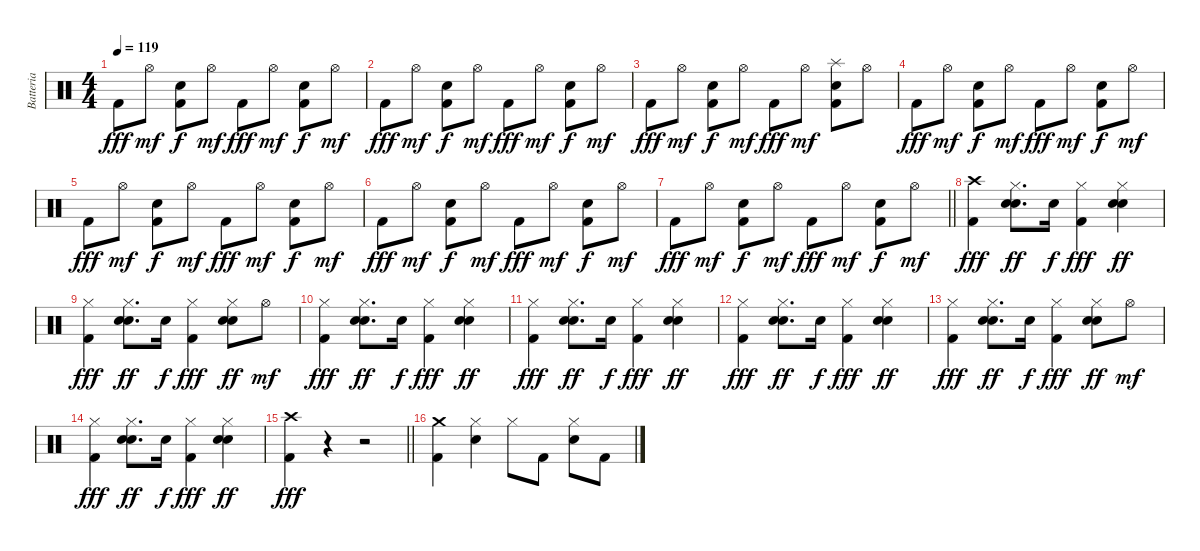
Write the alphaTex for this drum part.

\track ("Batteria" "Batteria") {instrument percussion}
\staff {score}
\articulation defaults
\ts (4 4)
\tempo 119
\clef neutral
\ks c "Kick (hit) 2".8{dy fff} "Hi-Hat (open)".8{dy mf}
("Kick (hit) 2" "Electric Snare (hit)").8{dy f} "Hi-Hat (open)".8{dy mf} "Kick (hit) 2".8{dy fff} "Hi-Hat (open)".8{dy mf} ("Kick (hit) 2" "Electric Snare (hit)").8{dy f} "Hi-Hat (open)".8{dy mf} |
"Kick (hit) 2".8{dy fff} "Hi-Hat (open)".8{dy mf} ("Kick (hit) 2" "Electric Snare (hit)").8{dy f} "Hi-Hat (open)".8{dy mf} "Kick (hit) 2".8{dy fff} "Hi-Hat (open)".8{dy mf} ("Kick (hit) 2" "Electric Snare (hit)").8{dy f} "Hi-Hat (open)".8{dy mf} |
"Kick (hit) 2".8{dy fff} "Hi-Hat (open)".8{dy mf} ("Kick (hit) 2" "Electric Snare (hit)").8{dy f} "Hi-Hat (open)".8{dy mf} "Kick (hit) 2".8{dy fff} "Hi-Hat (open)".8{dy mf} ("Splash (hit)" "Kick (hit) 2" "Electric Snare (hit)").8 "Hi-Hat (open)".8 |
"Kick (hit) 2".8{dy fff} "Hi-Hat (open)".8{dy mf} ("Kick (hit) 2" "Electric Snare (hit)").8{dy f} "Hi-Hat (open)".8{dy mf} "Kick (hit) 2".8{dy fff} "Hi-Hat (open)".8{dy mf} ("Kick (hit) 2" "Electric Snare (hit)").8{dy f} "Hi-Hat (open)".8{dy mf} |
"Kick (hit) 2".8{dy fff} "Hi-Hat (open)".8{dy mf} ("Kick (hit) 2" "Electric Snare (hit)").8{dy f} "Hi-Hat (open)".8{dy mf} "Kick (hit) 2".8{dy fff} "Hi-Hat (open)".8{dy mf} ("Kick (hit) 2" "Electric Snare (hit)").8{dy f} "Hi-Hat (open)".8{dy mf} |
"Kick (hit) 2".8{dy fff} "Hi-Hat (open)".8{dy mf} ("Kick (hit) 2" "Electric Snare (hit)").8{dy f} "Hi-Hat (open)".8{dy mf} "Kick (hit) 2".8{dy fff} "Hi-Hat (open)".8{dy mf} ("Kick (hit) 2" "Electric Snare (hit)").8{dy f} "Hi-Hat (open)".8{dy mf} |
\barLineRight lightlight "Kick (hit) 2".8{dy fff} "Hi-Hat (open)".8{dy mf}
("Kick (hit) 2" "Electric Snare (hit)").8{dy f} "Hi-Hat (open)".8{dy mf} "Kick (hit) 2".8{dy fff} "Hi-Hat (open)".8{dy mf} ("Kick (hit) 2" "Electric Snare (hit)").8{dy f} "Hi-Hat (open)".8{dy mf} |
("Crash high (hit)" "Kick (hit) 2").4{dy fff} ("Electric Snare (hit)" "Electric Snare (hit)" "Hi-Hat (closed)").8{d bd 60 dy ff} "Electric Snare (hit)".16{dy f} ("Hi-Hat (closed)" "Kick (hit) 2").4{dy fff} ("Electric Snare (hit)" "Electric Snare (hit)" "Hi-Hat (closed)").4{bd 60 dy ff} |
("Hi-Hat (closed)" "Kick (hit) 2").4{dy fff} ("Electric Snare (hit)" "Electric Snare (hit)" "Hi-Hat (closed)").8{d bd 60 dy ff} "Electric Snare (hit)".16{dy f} ("Hi-Hat (closed)" "Kick (hit) 2").4{dy fff} ("Electric Snare (hit)" "Electric Snare (hit)" "Hi-Hat (closed)").8{bd 60 dy ff} "Hi-Hat (open)".8{dy mf} |
("Hi-Hat (closed)" "Kick (hit) 2").4{dy fff} ("Electric Snare (hit)" "Electric Snare (hit)" "Hi-Hat (closed)").8{d bd 60 dy ff} "Electric Snare (hit)".16{dy f} ("Hi-Hat (closed)" "Kick (hit) 2").4{dy fff} ("Electric Snare (hit)" "Electric Snare (hit)" "Hi-Hat (closed)").4{bd 60 dy ff} |
("Hi-Hat (closed)" "Kick (hit) 2").4{dy fff} ("Electric Snare (hit)" "Electric Snare (hit)" "Hi-Hat (closed)").8{d bd 60 dy ff} "Electric Snare (hit)".16{dy f} ("Hi-Hat (closed)" "Kick (hit) 2").4{dy fff} ("Electric Snare (hit)" "Electric Snare (hit)" "Hi-Hat (closed)").4{bd 60 dy ff} |
("Hi-Hat (closed)" "Kick (hit) 2").4{dy fff} ("Electric Snare (hit)" "Electric Snare (hit)" "Hi-Hat (closed)").8{d bd 60 dy ff} "Electric Snare (hit)".16{dy f} ("Hi-Hat (closed)" "Kick (hit) 2").4{dy fff} ("Electric Snare (hit)" "Electric Snare (hit)" "Hi-Hat (closed)").4{bd 60 dy ff} |
("Hi-Hat (closed)" "Kick (hit) 2").4{dy fff} ("Electric Snare (hit)" "Electric Snare (hit)" "Hi-Hat (closed)").8{d bd 60 dy ff} "Electric Snare (hit)".16{dy f} ("Hi-Hat (closed)" "Kick (hit) 2").4{dy fff} ("Electric Snare (hit)" "Electric Snare (hit)" "Hi-Hat (closed)").8{bd 60 dy ff} "Hi-Hat (open)".8{dy mf} |
("Hi-Hat (closed)" "Kick (hit) 2").4{dy fff} ("Electric Snare (hit)" "Electric Snare (hit)" "Hi-Hat (closed)").8{d bd 60 dy ff} "Electric Snare (hit)".16{dy f} ("Hi-Hat (closed)" "Kick (hit) 2").4{dy fff} ("Electric Snare (hit)" "Electric Snare (hit)" "Hi-Hat (closed)").4{bd 60 dy ff} |
\barLineRight lightlight
("Crash high (hit)" "Kick (hit) 2").4{dy fff} r.4 r.2 |
("Crash medium (hit)" "Kick (hit) 2").4 ("Hi-Hat (closed)" "Electric Snare (hit)").4 "Hi-Hat (closed)".8 "Kick (hit) 2".8 ("Hi-Hat (closed)" "Electric Snare (hit)").8 "Kick (hit) 2".8
